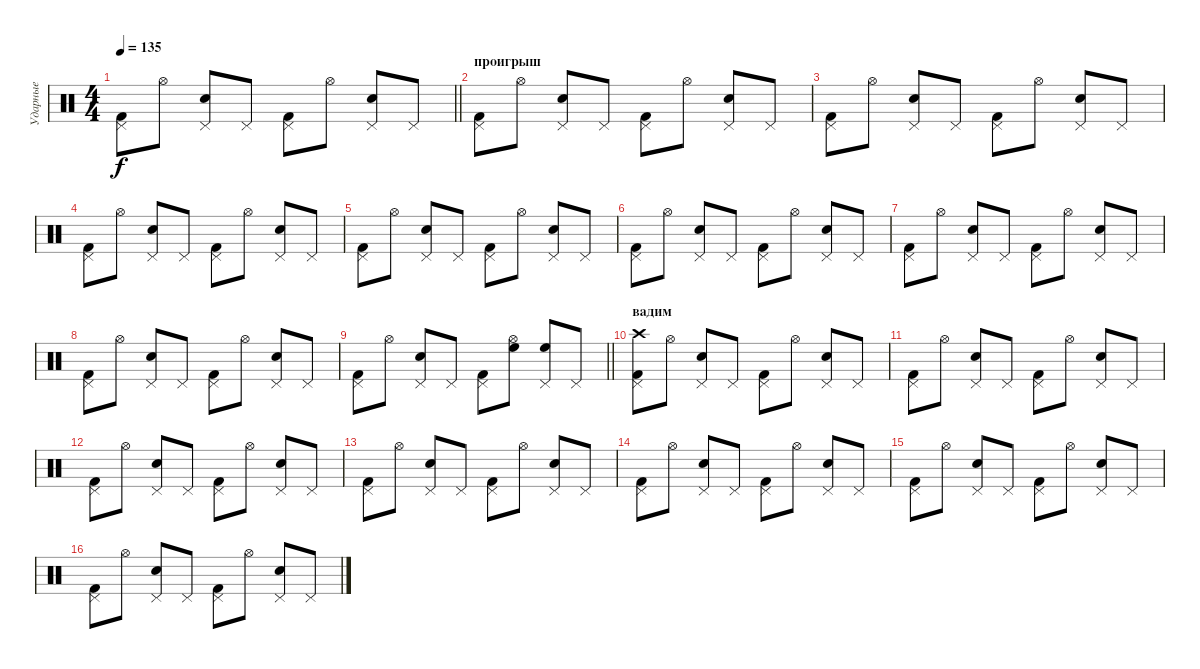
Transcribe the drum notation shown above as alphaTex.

\track ("Ударные" "Ударные") {instrument percussion}
\staff {score}
\articulation defaults
\ts (4 4)
\tempo 135
\clef neutral
\barLineRight lightlight
\ks c
("Pedal Hi-Hat (hit)" "Kick (hit) 2").8{dy f} "Hi-Hat (open)".8 ("Pedal Hi-Hat (hit)" "Snare (hit) 2").8 "Pedal Hi-Hat (hit)".8 ("Pedal Hi-Hat (hit)" "Kick (hit) 2").8 "Hi-Hat (open)".8 ("Pedal Hi-Hat (hit)" "Snare (hit) 2").8 "Pedal Hi-Hat (hit)".8 |
\section ("" "проигрыш")
("Pedal Hi-Hat (hit)" "Kick (hit) 2").8 "Hi-Hat (open)".8 ("Pedal Hi-Hat (hit)" "Snare (hit) 2").8 "Pedal Hi-Hat (hit)".8 ("Pedal Hi-Hat (hit)" "Kick (hit) 2").8 "Hi-Hat (open)".8 ("Pedal Hi-Hat (hit)" "Snare (hit) 2").8 "Pedal Hi-Hat (hit)".8 |
("Pedal Hi-Hat (hit)" "Kick (hit) 2").8 "Hi-Hat (open)".8 ("Pedal Hi-Hat (hit)" "Snare (hit) 2").8 "Pedal Hi-Hat (hit)".8 ("Pedal Hi-Hat (hit)" "Kick (hit) 2").8 "Hi-Hat (open)".8 ("Pedal Hi-Hat (hit)" "Snare (hit) 2").8 "Pedal Hi-Hat (hit)".8 |
("Pedal Hi-Hat (hit)" "Kick (hit) 2").8 "Hi-Hat (open)".8 ("Pedal Hi-Hat (hit)" "Snare (hit) 2").8 "Pedal Hi-Hat (hit)".8 ("Pedal Hi-Hat (hit)" "Kick (hit) 2").8 "Hi-Hat (open)".8 ("Pedal Hi-Hat (hit)" "Snare (hit) 2").8 "Pedal Hi-Hat (hit)".8 |
("Pedal Hi-Hat (hit)" "Kick (hit) 2").8 "Hi-Hat (open)".8 ("Pedal Hi-Hat (hit)" "Snare (hit) 2").8 "Pedal Hi-Hat (hit)".8 ("Pedal Hi-Hat (hit)" "Kick (hit) 2").8 "Hi-Hat (open)".8 ("Pedal Hi-Hat (hit)" "Snare (hit) 2").8 "Pedal Hi-Hat (hit)".8 |
("Pedal Hi-Hat (hit)" "Kick (hit) 2").8 "Hi-Hat (open)".8 ("Pedal Hi-Hat (hit)" "Snare (hit) 2").8 "Pedal Hi-Hat (hit)".8 ("Pedal Hi-Hat (hit)" "Kick (hit) 2").8 "Hi-Hat (open)".8 ("Pedal Hi-Hat (hit)" "Snare (hit) 2").8 "Pedal Hi-Hat (hit)".8 |
("Pedal Hi-Hat (hit)" "Kick (hit) 2").8 "Hi-Hat (open)".8 ("Pedal Hi-Hat (hit)" "Snare (hit) 2").8 "Pedal Hi-Hat (hit)".8 ("Pedal Hi-Hat (hit)" "Kick (hit) 2").8 "Hi-Hat (open)".8 ("Pedal Hi-Hat (hit)" "Snare (hit) 2").8 "Pedal Hi-Hat (hit)".8 |
("Pedal Hi-Hat (hit)" "Kick (hit) 2").8 "Hi-Hat (open)".8 ("Pedal Hi-Hat (hit)" "Snare (hit) 2").8 "Pedal Hi-Hat (hit)".8 ("Pedal Hi-Hat (hit)" "Kick (hit) 2").8 "Hi-Hat (open)".8 ("Pedal Hi-Hat (hit)" "Snare (hit) 2").8 "Pedal Hi-Hat (hit)".8 |
\barLineRight lightlight
("Pedal Hi-Hat (hit)" "Kick (hit) 2").8 "Hi-Hat (open)".8 ("Pedal Hi-Hat (hit)" "Snare (hit) 2").8 "Pedal Hi-Hat (hit)".8 ("Pedal Hi-Hat (hit)" "Kick (hit) 2").8 ("Hi-Hat (open)" "High Floor Tom (hit)").8 ("Pedal Hi-Hat (hit)" "High Floor Tom (hit)").8 "Pedal Hi-Hat (hit)".8 |
\section ("" "вадим")
("Pedal Hi-Hat (hit)" "Kick (hit) 2" "Crash high (hit)").8 "Hi-Hat (open)".8 ("Pedal Hi-Hat (hit)" "Snare (hit) 2").8 "Pedal Hi-Hat (hit)".8 ("Pedal Hi-Hat (hit)" "Kick (hit) 2").8 "Hi-Hat (open)".8 ("Pedal Hi-Hat (hit)" "Snare (hit) 2").8 "Pedal Hi-Hat (hit)".8 |
("Pedal Hi-Hat (hit)" "Kick (hit) 2").8 "Hi-Hat (open)".8 ("Pedal Hi-Hat (hit)" "Snare (hit) 2").8 "Pedal Hi-Hat (hit)".8 ("Pedal Hi-Hat (hit)" "Kick (hit) 2").8 "Hi-Hat (open)".8 ("Pedal Hi-Hat (hit)" "Snare (hit) 2").8 "Pedal Hi-Hat (hit)".8 |
("Pedal Hi-Hat (hit)" "Kick (hit) 2").8 "Hi-Hat (open)".8 ("Pedal Hi-Hat (hit)" "Snare (hit) 2").8 "Pedal Hi-Hat (hit)".8 ("Pedal Hi-Hat (hit)" "Kick (hit) 2").8 "Hi-Hat (open)".8 ("Pedal Hi-Hat (hit)" "Snare (hit) 2").8 "Pedal Hi-Hat (hit)".8 |
("Pedal Hi-Hat (hit)" "Kick (hit) 2").8 "Hi-Hat (open)".8 ("Pedal Hi-Hat (hit)" "Snare (hit) 2").8 "Pedal Hi-Hat (hit)".8 ("Pedal Hi-Hat (hit)" "Kick (hit) 2").8 "Hi-Hat (open)".8 ("Pedal Hi-Hat (hit)" "Snare (hit) 2").8 "Pedal Hi-Hat (hit)".8 |
("Pedal Hi-Hat (hit)" "Kick (hit) 2").8 "Hi-Hat (open)".8 ("Pedal Hi-Hat (hit)" "Snare (hit) 2").8 "Pedal Hi-Hat (hit)".8 ("Pedal Hi-Hat (hit)" "Kick (hit) 2").8 "Hi-Hat (open)".8 ("Pedal Hi-Hat (hit)" "Snare (hit) 2").8 "Pedal Hi-Hat (hit)".8 |
("Pedal Hi-Hat (hit)" "Kick (hit) 2").8 "Hi-Hat (open)".8 ("Pedal Hi-Hat (hit)" "Snare (hit) 2").8 "Pedal Hi-Hat (hit)".8 ("Pedal Hi-Hat (hit)" "Kick (hit) 2").8 "Hi-Hat (open)".8 ("Pedal Hi-Hat (hit)" "Snare (hit) 2").8 "Pedal Hi-Hat (hit)".8 |
("Pedal Hi-Hat (hit)" "Kick (hit) 2").8 "Hi-Hat (open)".8 ("Pedal Hi-Hat (hit)" "Snare (hit) 2").8 "Pedal Hi-Hat (hit)".8 ("Pedal Hi-Hat (hit)" "Kick (hit) 2").8 "Hi-Hat (open)".8 ("Pedal Hi-Hat (hit)" "Snare (hit) 2").8 "Pedal Hi-Hat (hit)".8
